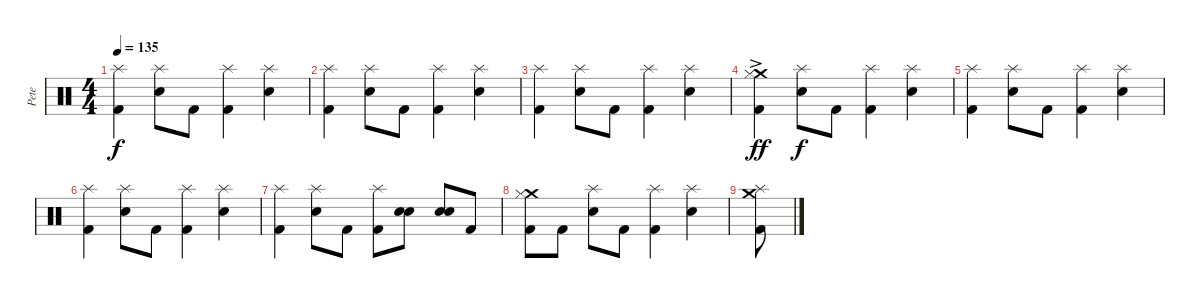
\track ("Pete" "Pete") {instrument percussion}
\staff {score}
\articulation defaults
\ts (4 4)
\tempo 135
\clef neutral
\ks c
("Splash (hit)" "Kick (hit) 2").4{dy f} ("Splash (hit)" "Electric Snare (hit)").8 "Kick (hit) 2".8 ("Splash (hit)" "Kick (hit) 2").4 ("Splash (hit)" "Electric Snare (hit)").4 |
("Splash (hit)" "Kick (hit) 2").4 ("Splash (hit)" "Electric Snare (hit)").8 "Kick (hit) 2".8 ("Splash (hit)" "Kick (hit) 2").4 ("Splash (hit)" "Electric Snare (hit)").4 |
("Splash (hit)" "Kick (hit) 2").4 ("Splash (hit)" "Electric Snare (hit)").8 "Kick (hit) 2".8 ("Splash (hit)" "Kick (hit) 2").4 ("Splash (hit)" "Electric Snare (hit)").4 |
("Crash medium (hit)" "Hi-Hat (closed)"{ac} "Kick (hit) 2").4{dy ff} ("Splash (hit)" "Electric Snare (hit)").8{dy f} "Kick (hit) 2".8 ("Splash (hit)" "Kick (hit) 2").4 ("Splash (hit)" "Electric Snare (hit)").4 |
("Splash (hit)" "Kick (hit) 2").4 ("Splash (hit)" "Electric Snare (hit)").8 "Kick (hit) 2".8 ("Splash (hit)" "Kick (hit) 2").4 ("Splash (hit)" "Electric Snare (hit)").4 |
("Splash (hit)" "Kick (hit) 2").4 ("Splash (hit)" "Electric Snare (hit)").8 "Kick (hit) 2".8 ("Splash (hit)" "Kick (hit) 2").4 ("Splash (hit)" "Electric Snare (hit)").4 |
("Splash (hit)" "Kick (hit) 2").4 ("Splash (hit)" "Electric Snare (hit)").8 "Kick (hit) 2".8 ("Splash (hit)" "Kick (hit) 2").8 ("Electric Snare (hit)" "Electric Snare (hit)").8 ("Electric Snare (hit)" "Electric Snare (hit)").8 "Kick (hit) 2".8 |
("Crash medium (hit)" "Hi-Hat (closed)" "Kick (hit) 2").8 "Kick (hit) 2".8 ("Splash (hit)" "Electric Snare (hit)").8 "Kick (hit) 2".8 ("Splash (hit)" "Kick (hit) 2").4 ("Splash (hit)" "Electric Snare (hit)").4 |
("Crash medium (hit)" "Splash (hit)" "Kick (hit) 2").8
